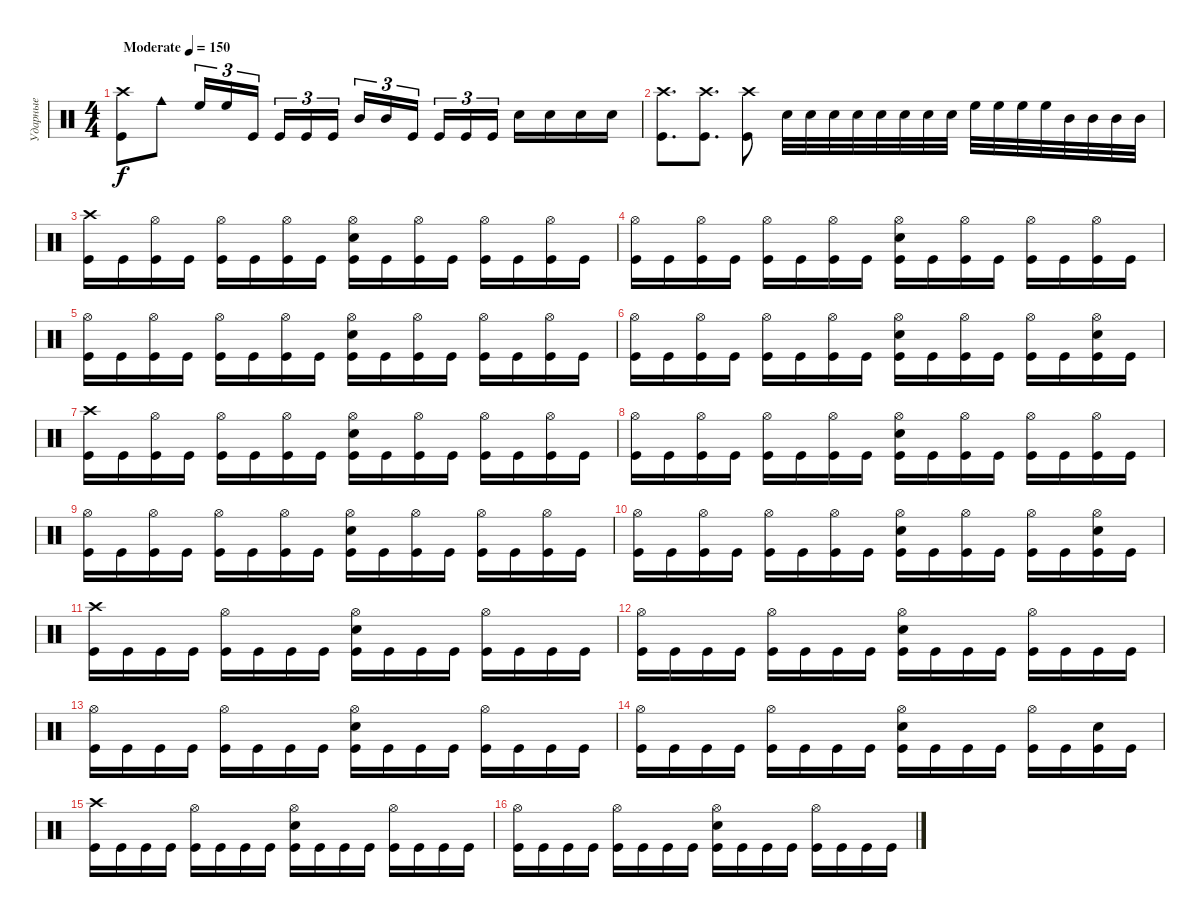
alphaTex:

\track ("Ударные" "Ударные") {instrument percussion}
\staff {score}
\articulation defaults
\ts (4 4)
\tempo (150 "Moderate")
\clef neutral
\ks c
("Crash high (hit)" "Kick (hit)").8{dy f} "Cowbell medium (hit)".8 "High Floor Tom (hit)".16{tu (3 2)} "High Floor Tom (hit)".16{tu (3 2)} "Kick (hit)".16{tu (3 2) beam splitsecondary} "Kick (hit)".16{tu (3 2)} "Kick (hit)".16{tu (3 2)} "Kick (hit)".16{tu (3 2)} "Mid Tom (hit)".16{tu (3 2)} "Mid Tom (hit)".16{tu (3 2)} "Kick (hit)".16{tu (3 2) beam splitsecondary} "Kick (hit)".16{tu (3 2)} "Kick (hit)".16{tu (3 2)} "Kick (hit)".16{tu (3 2)} "Snare (hit) 2".16 "Snare (hit) 2".16 "Snare (hit) 2".16 "Snare (hit) 2".16 |
("Crash high (hit)" "Kick (hit)").8{d} ("Crash high (hit)" "Kick (hit)").8{d} ("Kick (hit)" "Crash high (hit)").8 "Snare (hit) 2".32 "Snare (hit) 2".32 "Snare (hit) 2".32 "Snare (hit) 2".32 "Snare (hit) 2".32 "Snare (hit) 2".32 "Snare (hit) 2".32 "Snare (hit) 2".32 "High Floor Tom (hit)".32 "High Floor Tom (hit)".32 "High Floor Tom (hit)".32 "High Floor Tom (hit)".32 "Mid Tom (hit)".32 "Mid Tom (hit)".32 "Mid Tom (hit)".32 "Mid Tom (hit)".32 |
("Crash high (hit)" "Kick (hit)").16 "Kick (hit)".16 ("Hi-Hat (open)" "Kick (hit)").16 "Kick (hit)".16 ("Hi-Hat (open)" "Kick (hit)").16 "Kick (hit)".16 ("Hi-Hat (open)" "Kick (hit)").16 "Kick (hit)".16 ("Hi-Hat (open)" "Snare (hit) 2" "Kick (hit)").16 "Kick (hit)".16 ("Hi-Hat (open)" "Kick (hit)").16 "Kick (hit)".16 ("Hi-Hat (open)" "Kick (hit)").16 "Kick (hit)".16 ("Hi-Hat (open)" "Kick (hit)").16 "Kick (hit)".16 |
("Hi-Hat (open)" "Kick (hit)").16 "Kick (hit)".16 ("Hi-Hat (open)" "Kick (hit)").16 "Kick (hit)".16 ("Hi-Hat (open)" "Kick (hit)").16 "Kick (hit)".16 ("Hi-Hat (open)" "Kick (hit)").16 "Kick (hit)".16 ("Hi-Hat (open)" "Snare (hit) 2" "Kick (hit)").16 "Kick (hit)".16 ("Hi-Hat (open)" "Kick (hit)").16 "Kick (hit)".16 ("Hi-Hat (open)" "Kick (hit)").16 "Kick (hit)".16 ("Hi-Hat (open)" "Kick (hit)").16 "Kick (hit)".16 |
("Hi-Hat (open)" "Kick (hit)").16 "Kick (hit)".16 ("Hi-Hat (open)" "Kick (hit)").16 "Kick (hit)".16 ("Hi-Hat (open)" "Kick (hit)").16 "Kick (hit)".16 ("Hi-Hat (open)" "Kick (hit)").16 "Kick (hit)".16 ("Hi-Hat (open)" "Snare (hit) 2" "Kick (hit)").16 "Kick (hit)".16 ("Hi-Hat (open)" "Kick (hit)").16 "Kick (hit)".16 ("Hi-Hat (open)" "Kick (hit)").16 "Kick (hit)".16 ("Hi-Hat (open)" "Kick (hit)").16 "Kick (hit)".16 |
("Hi-Hat (open)" "Kick (hit)").16 "Kick (hit)".16 ("Hi-Hat (open)" "Kick (hit)").16 "Kick (hit)".16 ("Hi-Hat (open)" "Kick (hit)").16 "Kick (hit)".16 ("Hi-Hat (open)" "Kick (hit)").16 "Kick (hit)".16 ("Hi-Hat (open)" "Snare (hit) 2" "Kick (hit)").16 "Kick (hit)".16 ("Hi-Hat (open)" "Kick (hit)").16 "Kick (hit)".16 ("Hi-Hat (open)" "Kick (hit)").16 "Kick (hit)".16 ("Hi-Hat (open)" "Snare (hit) 2" "Kick (hit)").16 "Kick (hit)".16 |
("Crash high (hit)" "Kick (hit)").16 "Kick (hit)".16 ("Hi-Hat (open)" "Kick (hit)").16 "Kick (hit)".16 ("Hi-Hat (open)" "Kick (hit)").16 "Kick (hit)".16 ("Hi-Hat (open)" "Kick (hit)").16 "Kick (hit)".16 ("Hi-Hat (open)" "Snare (hit) 2" "Kick (hit)").16 "Kick (hit)".16 ("Hi-Hat (open)" "Kick (hit)").16 "Kick (hit)".16 ("Hi-Hat (open)" "Kick (hit)").16 "Kick (hit)".16 ("Hi-Hat (open)" "Kick (hit)").16 "Kick (hit)".16 |
("Hi-Hat (open)" "Kick (hit)").16 "Kick (hit)".16 ("Hi-Hat (open)" "Kick (hit)").16 "Kick (hit)".16 ("Hi-Hat (open)" "Kick (hit)").16 "Kick (hit)".16 ("Hi-Hat (open)" "Kick (hit)").16 "Kick (hit)".16 ("Hi-Hat (open)" "Snare (hit) 2" "Kick (hit)").16 "Kick (hit)".16 ("Hi-Hat (open)" "Kick (hit)").16 "Kick (hit)".16 ("Hi-Hat (open)" "Kick (hit)").16 "Kick (hit)".16 ("Hi-Hat (open)" "Kick (hit)").16 "Kick (hit)".16 |
("Hi-Hat (open)" "Kick (hit)").16 "Kick (hit)".16 ("Hi-Hat (open)" "Kick (hit)").16 "Kick (hit)".16 ("Hi-Hat (open)" "Kick (hit)").16 "Kick (hit)".16 ("Hi-Hat (open)" "Kick (hit)").16 "Kick (hit)".16 ("Hi-Hat (open)" "Snare (hit) 2" "Kick (hit)").16 "Kick (hit)".16 ("Hi-Hat (open)" "Kick (hit)").16 "Kick (hit)".16 ("Hi-Hat (open)" "Kick (hit)").16 "Kick (hit)".16 ("Hi-Hat (open)" "Kick (hit)").16 "Kick (hit)".16 |
("Hi-Hat (open)" "Kick (hit)").16 "Kick (hit)".16 ("Hi-Hat (open)" "Kick (hit)").16 "Kick (hit)".16 ("Hi-Hat (open)" "Kick (hit)").16 "Kick (hit)".16 ("Hi-Hat (open)" "Kick (hit)").16 "Kick (hit)".16 ("Hi-Hat (open)" "Snare (hit) 2" "Kick (hit)").16 "Kick (hit)".16 ("Hi-Hat (open)" "Kick (hit)").16 "Kick (hit)".16 ("Hi-Hat (open)" "Kick (hit)").16 "Kick (hit)".16 ("Hi-Hat (open)" "Snare (hit) 2" "Kick (hit)").16 "Kick (hit)".16 |
("Crash high (hit)" "Kick (hit)").16 "Kick (hit)".16 "Kick (hit)".16 "Kick (hit)".16 ("Hi-Hat (open)" "Kick (hit)").16 "Kick (hit)".16 "Kick (hit)".16 "Kick (hit)".16 ("Hi-Hat (open)" "Snare (hit) 2" "Kick (hit)").16 "Kick (hit)".16 "Kick (hit)".16 "Kick (hit)".16 ("Hi-Hat (open)" "Kick (hit)").16 "Kick (hit)".16 "Kick (hit)".16 "Kick (hit)".16 |
("Hi-Hat (open)" "Kick (hit)").16 "Kick (hit)".16 "Kick (hit)".16 "Kick (hit)".16 ("Hi-Hat (open)" "Kick (hit)").16 "Kick (hit)".16 "Kick (hit)".16 "Kick (hit)".16 ("Hi-Hat (open)" "Snare (hit) 2" "Kick (hit)").16 "Kick (hit)".16 "Kick (hit)".16 "Kick (hit)".16 ("Hi-Hat (open)" "Kick (hit)").16 "Kick (hit)".16 "Kick (hit)".16 "Kick (hit)".16 |
("Hi-Hat (open)" "Kick (hit)").16 "Kick (hit)".16 "Kick (hit)".16 "Kick (hit)".16 ("Hi-Hat (open)" "Kick (hit)").16 "Kick (hit)".16 "Kick (hit)".16 "Kick (hit)".16 ("Hi-Hat (open)" "Snare (hit) 2" "Kick (hit)").16 "Kick (hit)".16 "Kick (hit)".16 "Kick (hit)".16 ("Hi-Hat (open)" "Kick (hit)").16 "Kick (hit)".16 "Kick (hit)".16 "Kick (hit)".16 |
("Hi-Hat (open)" "Kick (hit)").16 "Kick (hit)".16 "Kick (hit)".16 "Kick (hit)".16 ("Hi-Hat (open)" "Kick (hit)").16 "Kick (hit)".16 "Kick (hit)".16 "Kick (hit)".16 ("Hi-Hat (open)" "Snare (hit) 2" "Kick (hit)").16 "Kick (hit)".16 "Kick (hit)".16 "Kick (hit)".16 ("Hi-Hat (open)" "Kick (hit)").16 "Kick (hit)".16 ("Snare (hit) 2" "Kick (hit)").16 "Kick (hit)".16 |
("Crash high (hit)" "Kick (hit)").16 "Kick (hit)".16 "Kick (hit)".16 "Kick (hit)".16 ("Hi-Hat (open)" "Kick (hit)").16 "Kick (hit)".16 "Kick (hit)".16 "Kick (hit)".16 ("Hi-Hat (open)" "Snare (hit) 2" "Kick (hit)").16 "Kick (hit)".16 "Kick (hit)".16 "Kick (hit)".16 ("Hi-Hat (open)" "Kick (hit)").16 "Kick (hit)".16 "Kick (hit)".16 "Kick (hit)".16 |
("Hi-Hat (open)" "Kick (hit)").16 "Kick (hit)".16 "Kick (hit)".16 "Kick (hit)".16 ("Hi-Hat (open)" "Kick (hit)").16 "Kick (hit)".16 "Kick (hit)".16 "Kick (hit)".16 ("Hi-Hat (open)" "Snare (hit) 2" "Kick (hit)").16 "Kick (hit)".16 "Kick (hit)".16 "Kick (hit)".16 ("Hi-Hat (open)" "Kick (hit)").16 "Kick (hit)".16 "Kick (hit)".16 "Kick (hit)".16
